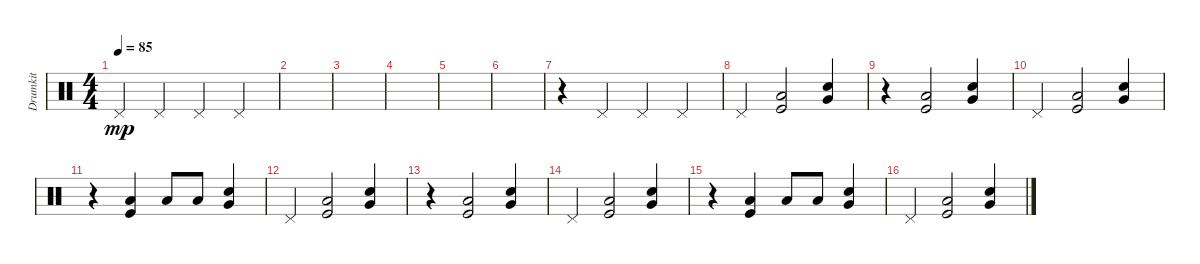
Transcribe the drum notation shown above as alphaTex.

\track ("Drumkit" "Drumkit") {instrument percussion}
\staff {score}
\articulation defaults
\ts (4 4)
\tempo 85
\clef neutral
\ks c "Pedal Hi-Hat (hit)".4{dy mp} "Pedal Hi-Hat (hit)".4 "Pedal Hi-Hat (hit)".4 "Pedal Hi-Hat (hit)".4
|
|
|
|
|
|
r.4 "Pedal Hi-Hat (hit)".4 "Pedal Hi-Hat (hit)".4 "Pedal Hi-Hat (hit)".4 |
"Pedal Hi-Hat (hit)".4 ("Kick (hit)" "Low Floor Tom (hit)").2 ("Snare (hit) 2" "Very Low Tom (hit)").4 |
r.4 ("Kick (hit)" "Low Floor Tom (hit)").2 ("Snare (hit) 2" "Very Low Tom (hit)").4 |
"Pedal Hi-Hat (hit)".4 ("Kick (hit)" "Low Floor Tom (hit)").2 ("Snare (hit) 2" "Very Low Tom (hit)").4 |
r.4 ("Kick (hit)" "Low Floor Tom (hit)").4 "Low Floor Tom (hit)".8 "Low Floor Tom (hit)".8 ("Very Low Tom (hit)" "Snare (hit) 2").4 |
"Pedal Hi-Hat (hit)".4 ("Kick (hit)" "Low Floor Tom (hit)").2 ("Snare (hit) 2" "Very Low Tom (hit)").4 |
r.4 ("Kick (hit)" "Low Floor Tom (hit)").2 ("Snare (hit) 2" "Very Low Tom (hit)").4 |
"Pedal Hi-Hat (hit)".4 ("Kick (hit)" "Low Floor Tom (hit)").2 ("Snare (hit) 2" "Very Low Tom (hit)").4 |
r.4 ("Kick (hit)" "Low Floor Tom (hit)").4 "Low Floor Tom (hit)".8 "Low Floor Tom (hit)".8 ("Very Low Tom (hit)" "Snare (hit) 2").4 |
"Pedal Hi-Hat (hit)".4 ("Kick (hit)" "Low Floor Tom (hit)").2 ("Snare (hit) 2" "Very Low Tom (hit)").4
